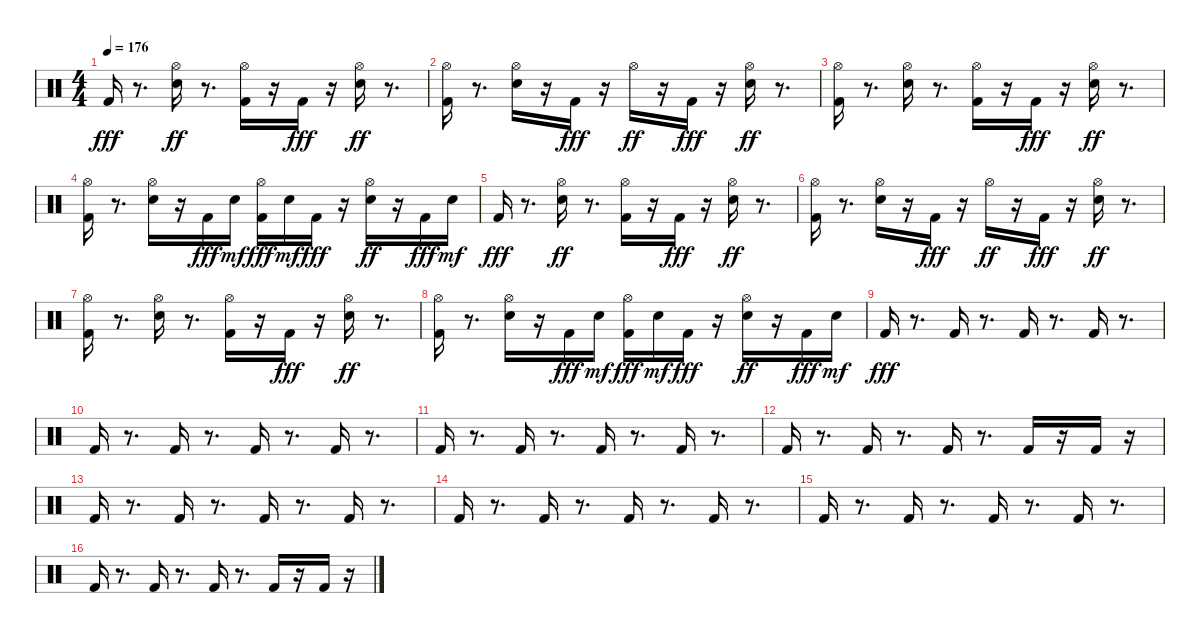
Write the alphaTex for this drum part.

\track "" {instrument percussion}
\staff {score}
\articulation defaults
\ts (4 4)
\tempo 176
\clef neutral
\ks c "Kick (hit) 2".16{dy fff}
r.8{d} ("Electric Snare (hit)" "Hi-Hat (open)").16{dy ff} r.8{d} ("Kick (hit) 2" "Hi-Hat (open)").16 r.16 "Kick (hit) 2".16{dy fff} r.16 ("Electric Snare (hit)" "Hi-Hat (open)").16{dy ff} r.8{d} |
("Kick (hit) 2" "Hi-Hat (open)").16 r.8{d} ("Electric Snare (hit)" "Hi-Hat (open)").16 r.16 "Kick (hit) 2".16{dy fff} r.16 "Hi-Hat (open)".16{dy ff} r.16 "Kick (hit) 2".16{dy fff} r.16 ("Electric Snare (hit)" "Hi-Hat (open)").16{dy ff} r.8{d} |
("Kick (hit) 2" "Hi-Hat (open)").16 r.8{d} ("Electric Snare (hit)" "Hi-Hat (open)").16 r.8{d} ("Kick (hit) 2" "Hi-Hat (open)").16 r.16 "Kick (hit) 2".16{dy fff} r.16 ("Electric Snare (hit)" "Hi-Hat (open)").16{dy ff} r.8{d} |
("Kick (hit) 2" "Hi-Hat (open)").16 r.8{d} ("Electric Snare (hit)" "Hi-Hat (open)").16 r.16 "Kick (hit) 2".16{dy fff} "Electric Snare (hit)".16{dy mf} ("Hi-Hat (open)" "Kick (hit) 2").16{dy fff} "Electric Snare (hit)".16{dy mf} "Kick (hit) 2".16{dy fff} r.16 ("Electric Snare (hit)" "Hi-Hat (open)").16{dy ff} r.16 "Kick (hit) 2".16{dy fff} "Electric Snare (hit)".16{dy mf} |
"Kick (hit) 2".16{dy fff} r.8{d} ("Electric Snare (hit)" "Hi-Hat (open)").16{dy ff} r.8{d} ("Kick (hit) 2" "Hi-Hat (open)").16 r.16 "Kick (hit) 2".16{dy fff} r.16 ("Electric Snare (hit)" "Hi-Hat (open)").16{dy ff} r.8{d} |
("Kick (hit) 2" "Hi-Hat (open)").16 r.8{d} ("Electric Snare (hit)" "Hi-Hat (open)").16 r.16 "Kick (hit) 2".16{dy fff} r.16 "Hi-Hat (open)".16{dy ff} r.16 "Kick (hit) 2".16{dy fff} r.16 ("Electric Snare (hit)" "Hi-Hat (open)").16{dy ff} r.8{d} |
("Kick (hit) 2" "Hi-Hat (open)").16 r.8{d} ("Electric Snare (hit)" "Hi-Hat (open)").16 r.8{d} ("Kick (hit) 2" "Hi-Hat (open)").16 r.16 "Kick (hit) 2".16{dy fff} r.16 ("Electric Snare (hit)" "Hi-Hat (open)").16{dy ff} r.8{d} |
("Kick (hit) 2" "Hi-Hat (open)").16 r.8{d} ("Electric Snare (hit)" "Hi-Hat (open)").16 r.16 "Kick (hit) 2".16{dy fff} "Electric Snare (hit)".16{dy mf} ("Hi-Hat (open)" "Kick (hit) 2").16{dy fff} "Electric Snare (hit)".16{dy mf} "Kick (hit) 2".16{dy fff} r.16 ("Electric Snare (hit)" "Hi-Hat (open)").16{dy ff} r.16 "Kick (hit) 2".16{dy fff} "Electric Snare (hit)".16{dy mf} |
"Kick (hit) 2".16{dy fff} r.8{d} "Kick (hit) 2".16 r.8{d} "Kick (hit) 2".16 r.8{d} "Kick (hit) 2".16 r.8{d} |
"Kick (hit) 2".16 r.8{d} "Kick (hit) 2".16 r.8{d} "Kick (hit) 2".16 r.8{d} "Kick (hit) 2".16 r.8{d} |
"Kick (hit) 2".16 r.8{d} "Kick (hit) 2".16 r.8{d} "Kick (hit) 2".16 r.8{d} "Kick (hit) 2".16 r.8{d} |
"Kick (hit) 2".16 r.8{d} "Kick (hit) 2".16 r.8{d} "Kick (hit) 2".16 r.8{d} "Kick (hit) 2".16 r.16 "Kick (hit) 2".16 r.16 |
"Kick (hit) 2".16 r.8{d} "Kick (hit) 2".16 r.8{d} "Kick (hit) 2".16 r.8{d} "Kick (hit) 2".16 r.8{d} |
"Kick (hit) 2".16 r.8{d} "Kick (hit) 2".16 r.8{d} "Kick (hit) 2".16 r.8{d} "Kick (hit) 2".16 r.8{d} |
"Kick (hit) 2".16 r.8{d} "Kick (hit) 2".16 r.8{d} "Kick (hit) 2".16 r.8{d} "Kick (hit) 2".16 r.8{d} |
"Kick (hit) 2".16 r.8{d} "Kick (hit) 2".16 r.8{d} "Kick (hit) 2".16 r.8{d} "Kick (hit) 2".16 r.16 "Kick (hit) 2".16 r.16
